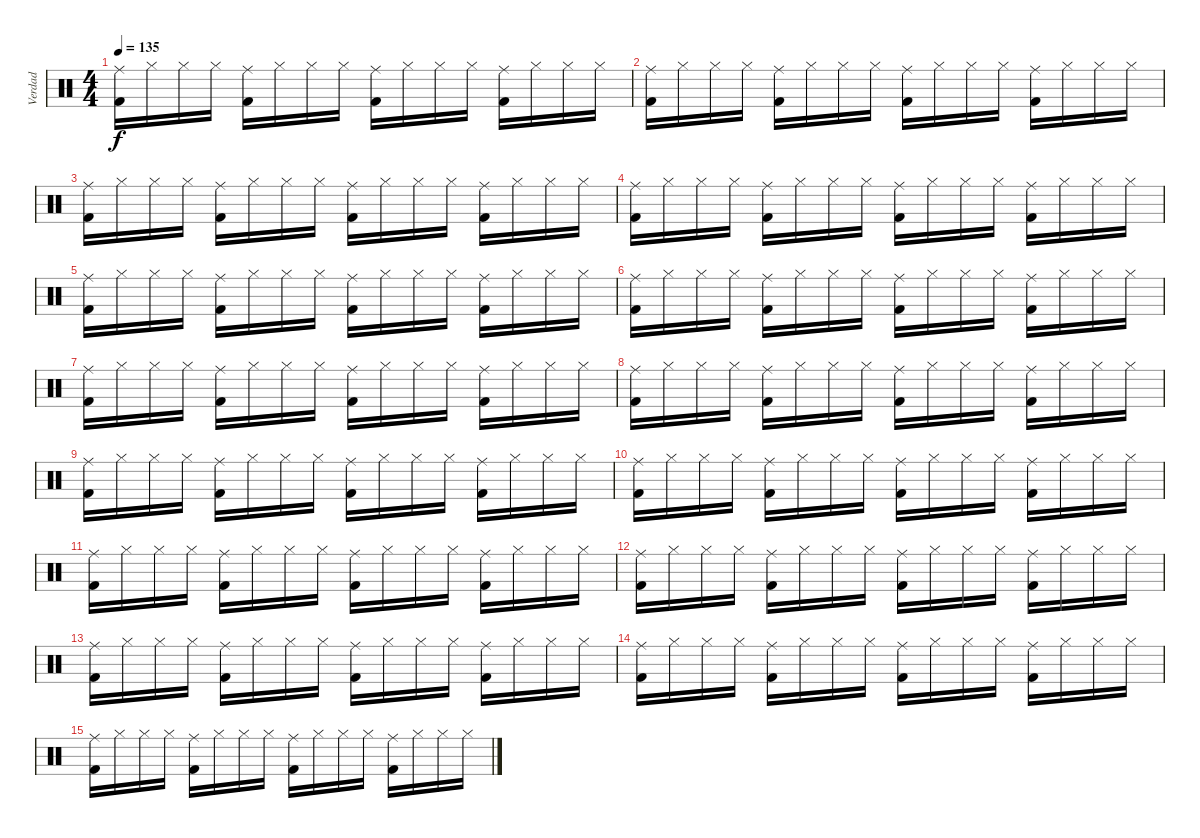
\track ("Verdad" "Verdad") {instrument percussion}
\staff {score}
\articulation defaults
\ts (4 4)
\tempo 135
\clef neutral
\ks c
("Kick (hit) 2" "Ride (middle)").16{dy f} "Hi-Hat (closed)".16 "Hi-Hat (closed)".16 "Hi-Hat (closed)".16 ("Kick (hit) 2" "Ride (middle)").16 "Hi-Hat (closed)".16 "Hi-Hat (closed)".16 "Hi-Hat (closed)".16 ("Kick (hit) 2" "Ride (middle)").16 "Hi-Hat (closed)".16 "Hi-Hat (closed)".16 "Hi-Hat (closed)".16 ("Kick (hit) 2" "Ride (middle)").16 "Hi-Hat (closed)".16 "Hi-Hat (closed)".16 "Hi-Hat (closed)".16 |
("Kick (hit) 2" "Ride (middle)").16 "Hi-Hat (closed)".16 "Hi-Hat (closed)".16 "Hi-Hat (closed)".16 ("Kick (hit) 2" "Ride (middle)").16 "Hi-Hat (closed)".16 "Hi-Hat (closed)".16 "Hi-Hat (closed)".16 ("Kick (hit) 2" "Ride (middle)").16 "Hi-Hat (closed)".16 "Hi-Hat (closed)".16 "Hi-Hat (closed)".16 ("Kick (hit) 2" "Ride (middle)").16 "Hi-Hat (closed)".16 "Hi-Hat (closed)".16 "Hi-Hat (closed)".16 |
("Kick (hit) 2" "Ride (middle)").16 "Hi-Hat (closed)".16 "Hi-Hat (closed)".16 "Hi-Hat (closed)".16 ("Kick (hit) 2" "Ride (middle)").16 "Hi-Hat (closed)".16 "Hi-Hat (closed)".16 "Hi-Hat (closed)".16 ("Kick (hit) 2" "Ride (middle)").16 "Hi-Hat (closed)".16 "Hi-Hat (closed)".16 "Hi-Hat (closed)".16 ("Kick (hit) 2" "Ride (middle)").16 "Hi-Hat (closed)".16 "Hi-Hat (closed)".16 "Hi-Hat (closed)".16 |
("Kick (hit) 2" "Ride (middle)").16 "Hi-Hat (closed)".16 "Hi-Hat (closed)".16 "Hi-Hat (closed)".16 ("Kick (hit) 2" "Ride (middle)").16 "Hi-Hat (closed)".16 "Hi-Hat (closed)".16 "Hi-Hat (closed)".16 ("Kick (hit) 2" "Ride (middle)").16 "Hi-Hat (closed)".16 "Hi-Hat (closed)".16 "Hi-Hat (closed)".16 ("Kick (hit) 2" "Ride (middle)").16 "Hi-Hat (closed)".16 "Hi-Hat (closed)".16 "Hi-Hat (closed)".16 |
("Kick (hit) 2" "Ride (middle)").16 "Hi-Hat (closed)".16 "Hi-Hat (closed)".16 "Hi-Hat (closed)".16 ("Kick (hit) 2" "Ride (middle)").16 "Hi-Hat (closed)".16 "Hi-Hat (closed)".16 "Hi-Hat (closed)".16 ("Kick (hit) 2" "Ride (middle)").16 "Hi-Hat (closed)".16 "Hi-Hat (closed)".16 "Hi-Hat (closed)".16 ("Kick (hit) 2" "Ride (middle)").16 "Hi-Hat (closed)".16 "Hi-Hat (closed)".16 "Hi-Hat (closed)".16 |
("Kick (hit) 2" "Ride (middle)").16 "Hi-Hat (closed)".16 "Hi-Hat (closed)".16 "Hi-Hat (closed)".16 ("Kick (hit) 2" "Ride (middle)").16 "Hi-Hat (closed)".16 "Hi-Hat (closed)".16 "Hi-Hat (closed)".16 ("Kick (hit) 2" "Ride (middle)").16 "Hi-Hat (closed)".16 "Hi-Hat (closed)".16 "Hi-Hat (closed)".16 ("Kick (hit) 2" "Ride (middle)").16 "Hi-Hat (closed)".16 "Hi-Hat (closed)".16 "Hi-Hat (closed)".16 |
("Kick (hit) 2" "Ride (middle)").16 "Hi-Hat (closed)".16 "Hi-Hat (closed)".16 "Hi-Hat (closed)".16 ("Kick (hit) 2" "Ride (middle)").16 "Hi-Hat (closed)".16 "Hi-Hat (closed)".16 "Hi-Hat (closed)".16 ("Kick (hit) 2" "Ride (middle)").16 "Hi-Hat (closed)".16 "Hi-Hat (closed)".16 "Hi-Hat (closed)".16 ("Kick (hit) 2" "Ride (middle)").16 "Hi-Hat (closed)".16 "Hi-Hat (closed)".16 "Hi-Hat (closed)".16 |
("Kick (hit) 2" "Ride (middle)").16 "Hi-Hat (closed)".16 "Hi-Hat (closed)".16 "Hi-Hat (closed)".16 ("Kick (hit) 2" "Ride (middle)").16 "Hi-Hat (closed)".16 "Hi-Hat (closed)".16 "Hi-Hat (closed)".16 ("Kick (hit) 2" "Ride (middle)").16 "Hi-Hat (closed)".16 "Hi-Hat (closed)".16 "Hi-Hat (closed)".16 ("Kick (hit) 2" "Ride (middle)").16 "Hi-Hat (closed)".16 "Hi-Hat (closed)".16 "Hi-Hat (closed)".16 |
("Kick (hit) 2" "Ride (middle)").16 "Hi-Hat (closed)".16 "Hi-Hat (closed)".16 "Hi-Hat (closed)".16 ("Kick (hit) 2" "Ride (middle)").16 "Hi-Hat (closed)".16 "Hi-Hat (closed)".16 "Hi-Hat (closed)".16 ("Kick (hit) 2" "Ride (middle)").16 "Hi-Hat (closed)".16 "Hi-Hat (closed)".16 "Hi-Hat (closed)".16 ("Kick (hit) 2" "Ride (middle)").16 "Hi-Hat (closed)".16 "Hi-Hat (closed)".16 "Hi-Hat (closed)".16 |
("Kick (hit) 2" "Ride (middle)").16 "Hi-Hat (closed)".16 "Hi-Hat (closed)".16 "Hi-Hat (closed)".16 ("Kick (hit) 2" "Ride (middle)").16 "Hi-Hat (closed)".16 "Hi-Hat (closed)".16 "Hi-Hat (closed)".16 ("Kick (hit) 2" "Ride (middle)").16 "Hi-Hat (closed)".16 "Hi-Hat (closed)".16 "Hi-Hat (closed)".16 ("Kick (hit) 2" "Ride (middle)").16 "Hi-Hat (closed)".16 "Hi-Hat (closed)".16 "Hi-Hat (closed)".16 |
("Kick (hit) 2" "Ride (middle)").16 "Hi-Hat (closed)".16 "Hi-Hat (closed)".16 "Hi-Hat (closed)".16 ("Kick (hit) 2" "Ride (middle)").16 "Hi-Hat (closed)".16 "Hi-Hat (closed)".16 "Hi-Hat (closed)".16 ("Kick (hit) 2" "Ride (middle)").16 "Hi-Hat (closed)".16 "Hi-Hat (closed)".16 "Hi-Hat (closed)".16 ("Kick (hit) 2" "Ride (middle)").16 "Hi-Hat (closed)".16 "Hi-Hat (closed)".16 "Hi-Hat (closed)".16 |
("Kick (hit) 2" "Ride (middle)").16 "Hi-Hat (closed)".16 "Hi-Hat (closed)".16 "Hi-Hat (closed)".16 ("Kick (hit) 2" "Ride (middle)").16 "Hi-Hat (closed)".16 "Hi-Hat (closed)".16 "Hi-Hat (closed)".16 ("Kick (hit) 2" "Ride (middle)").16 "Hi-Hat (closed)".16 "Hi-Hat (closed)".16 "Hi-Hat (closed)".16 ("Kick (hit) 2" "Ride (middle)").16 "Hi-Hat (closed)".16 "Hi-Hat (closed)".16 "Hi-Hat (closed)".16 |
("Kick (hit) 2" "Ride (middle)").16 "Hi-Hat (closed)".16 "Hi-Hat (closed)".16 "Hi-Hat (closed)".16 ("Kick (hit) 2" "Ride (middle)").16 "Hi-Hat (closed)".16 "Hi-Hat (closed)".16 "Hi-Hat (closed)".16 ("Kick (hit) 2" "Ride (middle)").16 "Hi-Hat (closed)".16 "Hi-Hat (closed)".16 "Hi-Hat (closed)".16 ("Kick (hit) 2" "Ride (middle)").16 "Hi-Hat (closed)".16 "Hi-Hat (closed)".16 "Hi-Hat (closed)".16 |
("Kick (hit) 2" "Ride (middle)").16 "Hi-Hat (closed)".16 "Hi-Hat (closed)".16 "Hi-Hat (closed)".16 ("Kick (hit) 2" "Ride (middle)").16 "Hi-Hat (closed)".16 "Hi-Hat (closed)".16 "Hi-Hat (closed)".16 ("Kick (hit) 2" "Ride (middle)").16 "Hi-Hat (closed)".16 "Hi-Hat (closed)".16 "Hi-Hat (closed)".16 ("Kick (hit) 2" "Ride (middle)").16 "Hi-Hat (closed)".16 "Hi-Hat (closed)".16 "Hi-Hat (closed)".16 |
("Kick (hit) 2" "Ride (middle)").16 "Hi-Hat (closed)".16 "Hi-Hat (closed)".16 "Hi-Hat (closed)".16 ("Kick (hit) 2" "Ride (middle)").16 "Hi-Hat (closed)".16 "Hi-Hat (closed)".16 "Hi-Hat (closed)".16 ("Kick (hit) 2" "Ride (middle)").16 "Hi-Hat (closed)".16 "Hi-Hat (closed)".16 "Hi-Hat (closed)".16 ("Kick (hit) 2" "Ride (middle)").16 "Hi-Hat (closed)".16 "Hi-Hat (closed)".16 "Hi-Hat (closed)".16
